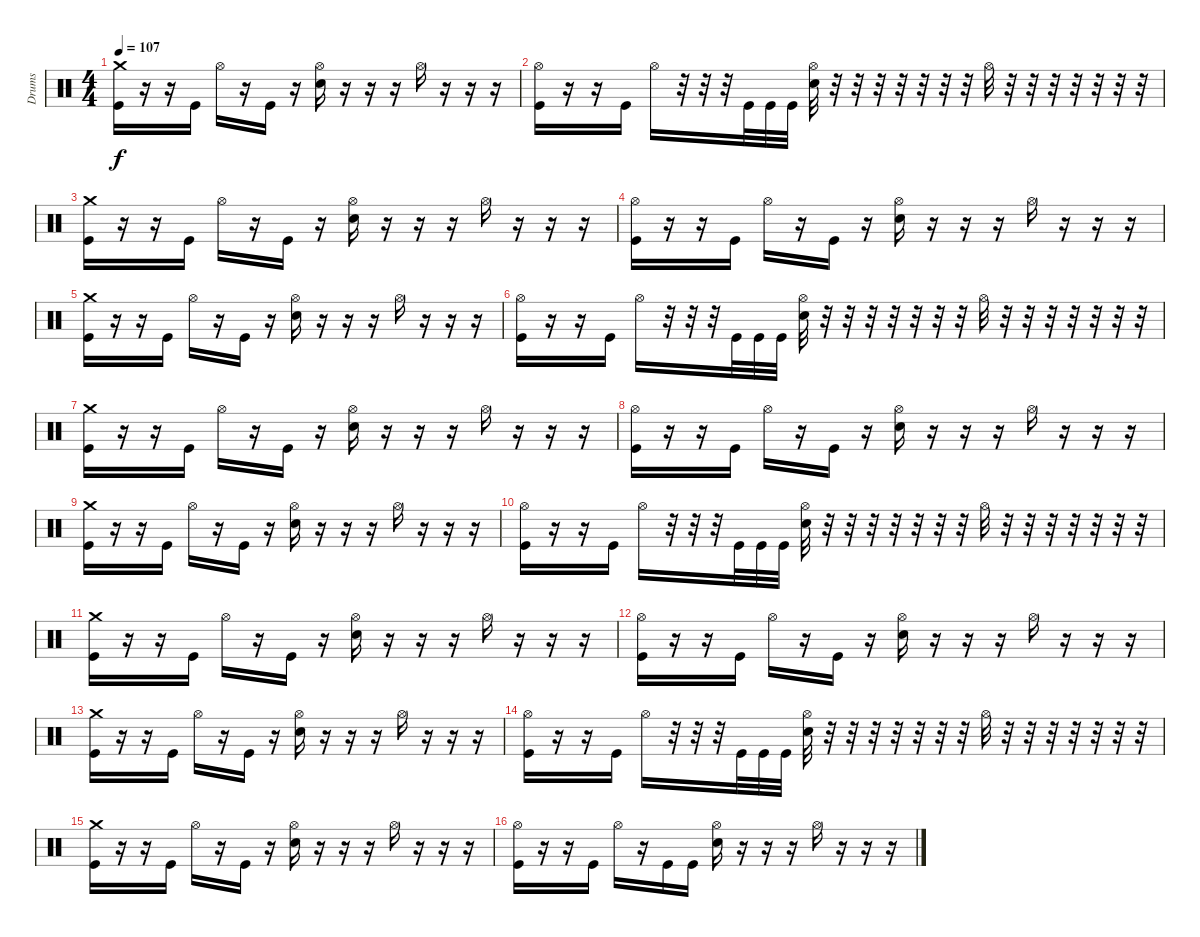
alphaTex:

\track ("Drums" "Drums") {instrument percussion}
\staff {score}
\articulation defaults
\ts (4 4)
\tempo 107
\clef neutral
\ks c
("Crash medium (hit)" "Kick (hit)").16{dy f} r.16 r.16 "Kick (hit)".16 "Hi-Hat (open)".16 r.16 "Kick (hit)".16 r.16 ("Hi-Hat (open)" "Electric Snare (hit)").16 r.16 r.16 r.16 "Hi-Hat (open)".16 r.16 r.16 r.16 |
("Hi-Hat (open)" "Kick (hit)").16 r.16 r.16 "Kick (hit)".16 "Hi-Hat (open)".16 r.32 r.32 r.32 "Kick (hit)".32 "Kick (hit)".32 "Kick (hit)".32 ("Hi-Hat (open)" "Electric Snare (hit)").32 r.32 r.32 r.32 r.32 r.32 r.32 r.32 "Hi-Hat (open)".32 r.32 r.32 r.32 r.32 r.32 r.32 r.32 |
("Crash medium (hit)" "Kick (hit)").16 r.16 r.16 "Kick (hit)".16 "Hi-Hat (open)".16 r.16 "Kick (hit)".16 r.16 ("Hi-Hat (open)" "Electric Snare (hit)").16 r.16 r.16 r.16 "Hi-Hat (open)".16 r.16 r.16 r.16 |
("Hi-Hat (open)" "Kick (hit)").16 r.16 r.16 "Kick (hit)".16 "Hi-Hat (open)".16 r.16 "Kick (hit)".16 r.16 ("Hi-Hat (open)" "Electric Snare (hit)").16 r.16 r.16 r.16 "Hi-Hat (open)".16 r.16 r.16 r.16 |
("Crash medium (hit)" "Kick (hit)").16 r.16 r.16 "Kick (hit)".16 "Hi-Hat (open)".16 r.16 "Kick (hit)".16 r.16 ("Hi-Hat (open)" "Electric Snare (hit)").16 r.16 r.16 r.16 "Hi-Hat (open)".16 r.16 r.16 r.16 |
("Hi-Hat (open)" "Kick (hit)").16 r.16 r.16 "Kick (hit)".16 "Hi-Hat (open)".16 r.32 r.32 r.32 "Kick (hit)".32 "Kick (hit)".32 "Kick (hit)".32 ("Hi-Hat (open)" "Electric Snare (hit)").32 r.32 r.32 r.32 r.32 r.32 r.32 r.32 "Hi-Hat (open)".32 r.32 r.32 r.32 r.32 r.32 r.32 r.32 |
("Crash medium (hit)" "Kick (hit)").16 r.16 r.16 "Kick (hit)".16 "Hi-Hat (open)".16 r.16 "Kick (hit)".16 r.16 ("Hi-Hat (open)" "Electric Snare (hit)").16 r.16 r.16 r.16 "Hi-Hat (open)".16 r.16 r.16 r.16 |
("Hi-Hat (open)" "Kick (hit)").16 r.16 r.16 "Kick (hit)".16 "Hi-Hat (open)".16 r.16 "Kick (hit)".16 r.16 ("Hi-Hat (open)" "Electric Snare (hit)").16 r.16 r.16 r.16 "Hi-Hat (open)".16 r.16 r.16 r.16 |
("Crash medium (hit)" "Kick (hit)").16 r.16 r.16 "Kick (hit)".16 "Hi-Hat (open)".16 r.16 "Kick (hit)".16 r.16 ("Hi-Hat (open)" "Electric Snare (hit)").16 r.16 r.16 r.16 "Hi-Hat (open)".16 r.16 r.16 r.16 |
("Hi-Hat (open)" "Kick (hit)").16 r.16 r.16 "Kick (hit)".16 "Hi-Hat (open)".16 r.32 r.32 r.32 "Kick (hit)".32 "Kick (hit)".32 "Kick (hit)".32 ("Hi-Hat (open)" "Electric Snare (hit)").32 r.32 r.32 r.32 r.32 r.32 r.32 r.32 "Hi-Hat (open)".32 r.32 r.32 r.32 r.32 r.32 r.32 r.32 |
("Crash medium (hit)" "Kick (hit)").16 r.16 r.16 "Kick (hit)".16 "Hi-Hat (open)".16 r.16 "Kick (hit)".16 r.16 ("Hi-Hat (open)" "Electric Snare (hit)").16 r.16 r.16 r.16 "Hi-Hat (open)".16 r.16 r.16 r.16 |
("Hi-Hat (open)" "Kick (hit)").16 r.16 r.16 "Kick (hit)".16 "Hi-Hat (open)".16 r.16 "Kick (hit)".16 r.16 ("Hi-Hat (open)" "Electric Snare (hit)").16 r.16 r.16 r.16 "Hi-Hat (open)".16 r.16 r.16 r.16 |
("Crash medium (hit)" "Kick (hit)").16 r.16 r.16 "Kick (hit)".16 "Hi-Hat (open)".16 r.16 "Kick (hit)".16 r.16 ("Hi-Hat (open)" "Electric Snare (hit)").16 r.16 r.16 r.16 "Hi-Hat (open)".16 r.16 r.16 r.16 |
("Hi-Hat (open)" "Kick (hit)").16 r.16 r.16 "Kick (hit)".16 "Hi-Hat (open)".16 r.32 r.32 r.32 "Kick (hit)".32 "Kick (hit)".32 "Kick (hit)".32 ("Hi-Hat (open)" "Electric Snare (hit)").32 r.32 r.32 r.32 r.32 r.32 r.32 r.32 "Hi-Hat (open)".32 r.32 r.32 r.32 r.32 r.32 r.32 r.32 |
("Crash medium (hit)" "Kick (hit)").16 r.16 r.16 "Kick (hit)".16 "Hi-Hat (open)".16 r.16 "Kick (hit)".16 r.16 ("Hi-Hat (open)" "Electric Snare (hit)").16 r.16 r.16 r.16 "Hi-Hat (open)".16 r.16 r.16 r.16 |
("Hi-Hat (open)" "Kick (hit)").16 r.16 r.16 "Kick (hit)".16 "Hi-Hat (open)".16 r.16 "Kick (hit)".16 "Kick (hit)".16 ("Hi-Hat (open)" "Electric Snare (hit)").16 r.16 r.16 r.16 "Hi-Hat (open)".16 r.16 r.16 r.16
